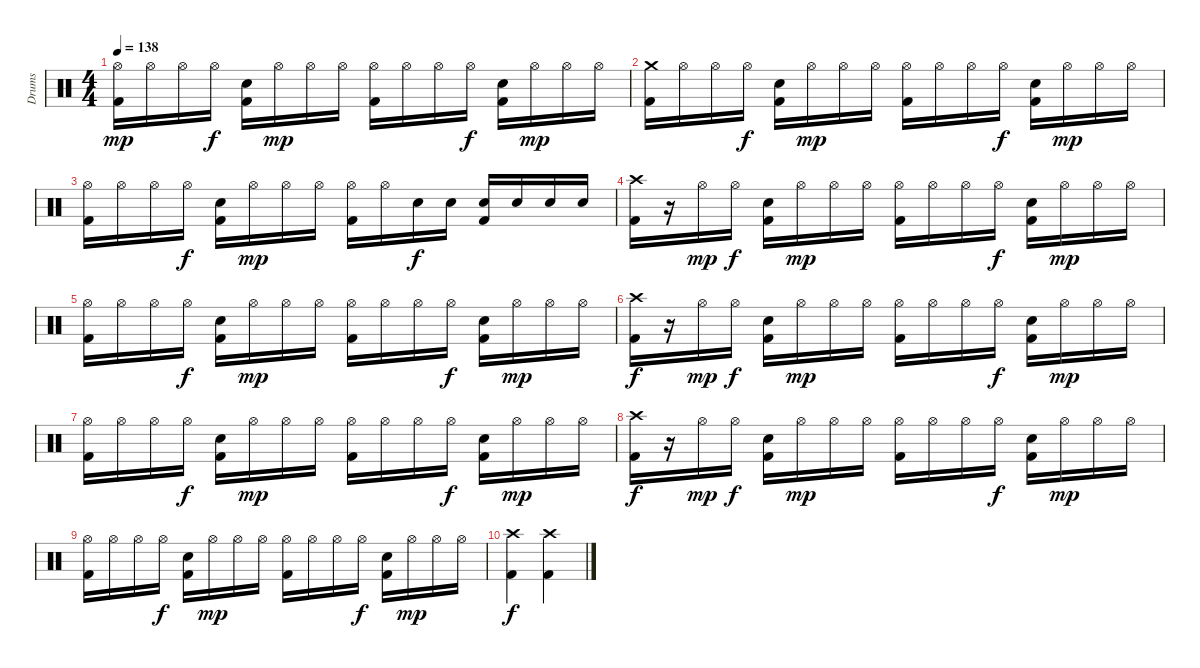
\track ("Drums" "Drums") {instrument percussion}
\staff {score}
\articulation defaults
\ts (4 4)
\tempo 138
\clef neutral
\ks c
("Hi-Hat (open)" "Kick (hit) 2").16{dy mp} "Hi-Hat (open)".16 "Hi-Hat (open)".16 "Hi-Hat (open)".16{dy f} ("Electric Snare (hit)" "Kick (hit) 2").16 "Hi-Hat (open)".16{dy mp} "Hi-Hat (open)".16 "Hi-Hat (open)".16 ("Hi-Hat (open)" "Kick (hit) 2").16 "Hi-Hat (open)".16 "Hi-Hat (open)".16 "Hi-Hat (open)".16{dy f} ("Electric Snare (hit)" "Kick (hit) 2").16 "Hi-Hat (open)".16{dy mp} "Hi-Hat (open)".16 "Hi-Hat (open)".16 |
("Crash medium (hit)" "Kick (hit) 2").16 "Hi-Hat (open)".16 "Hi-Hat (open)".16 "Hi-Hat (open)".16{dy f} ("Electric Snare (hit)" "Kick (hit) 2").16 "Hi-Hat (open)".16{dy mp} "Hi-Hat (open)".16 "Hi-Hat (open)".16 ("Hi-Hat (open)" "Kick (hit) 2").16 "Hi-Hat (open)".16 "Hi-Hat (open)".16 "Hi-Hat (open)".16{dy f} ("Electric Snare (hit)" "Kick (hit) 2").16 "Hi-Hat (open)".16{dy mp} "Hi-Hat (open)".16 "Hi-Hat (open)".16 |
("Hi-Hat (open)" "Kick (hit) 2").16 "Hi-Hat (open)".16 "Hi-Hat (open)".16 "Hi-Hat (open)".16{dy f} ("Electric Snare (hit)" "Kick (hit) 2").16 "Hi-Hat (open)".16{dy mp} "Hi-Hat (open)".16 "Hi-Hat (open)".16 ("Hi-Hat (open)" "Kick (hit) 2").16 "Hi-Hat (open)".16 "Electric Snare (hit)".16{dy f} "Electric Snare (hit)".16 ("Electric Snare (hit)" "Kick (hit) 2").16 "Electric Snare (hit)".16 "Electric Snare (hit)".16 "Electric Snare (hit)".16 |
("Crash high (hit)" "Kick (hit) 2").16 r.16 "Hi-Hat (open)".16{dy mp} "Hi-Hat (open)".16{dy f} ("Electric Snare (hit)" "Kick (hit) 2").16 "Hi-Hat (open)".16{dy mp} "Hi-Hat (open)".16 "Hi-Hat (open)".16 ("Hi-Hat (open)" "Kick (hit) 2").16 "Hi-Hat (open)".16 "Hi-Hat (open)".16 "Hi-Hat (open)".16{dy f} ("Electric Snare (hit)" "Kick (hit) 2").16 "Hi-Hat (open)".16{dy mp} "Hi-Hat (open)".16 "Hi-Hat (open)".16 |
("Hi-Hat (open)" "Kick (hit) 2").16 "Hi-Hat (open)".16 "Hi-Hat (open)".16 "Hi-Hat (open)".16{dy f} ("Electric Snare (hit)" "Kick (hit) 2").16 "Hi-Hat (open)".16{dy mp} "Hi-Hat (open)".16 "Hi-Hat (open)".16 ("Hi-Hat (open)" "Kick (hit) 2").16 "Hi-Hat (open)".16 "Hi-Hat (open)".16 "Hi-Hat (open)".16{dy f} ("Electric Snare (hit)" "Kick (hit) 2").16 "Hi-Hat (open)".16{dy mp} "Hi-Hat (open)".16 "Hi-Hat (open)".16 |
("Crash high (hit)" "Kick (hit) 2").16{dy f} r.16 "Hi-Hat (open)".16{dy mp} "Hi-Hat (open)".16{dy f} ("Electric Snare (hit)" "Kick (hit) 2").16 "Hi-Hat (open)".16{dy mp} "Hi-Hat (open)".16 "Hi-Hat (open)".16 ("Hi-Hat (open)" "Kick (hit) 2").16 "Hi-Hat (open)".16 "Hi-Hat (open)".16 "Hi-Hat (open)".16{dy f} ("Electric Snare (hit)" "Kick (hit) 2").16 "Hi-Hat (open)".16{dy mp} "Hi-Hat (open)".16 "Hi-Hat (open)".16 |
("Hi-Hat (open)" "Kick (hit) 2").16 "Hi-Hat (open)".16 "Hi-Hat (open)".16 "Hi-Hat (open)".16{dy f} ("Electric Snare (hit)" "Kick (hit) 2").16 "Hi-Hat (open)".16{dy mp} "Hi-Hat (open)".16 "Hi-Hat (open)".16 ("Hi-Hat (open)" "Kick (hit) 2").16 "Hi-Hat (open)".16 "Hi-Hat (open)".16 "Hi-Hat (open)".16{dy f} ("Electric Snare (hit)" "Kick (hit) 2").16 "Hi-Hat (open)".16{dy mp} "Hi-Hat (open)".16 "Hi-Hat (open)".16 |
("Crash high (hit)" "Kick (hit) 2").16{dy f} r.16 "Hi-Hat (open)".16{dy mp} "Hi-Hat (open)".16{dy f} ("Electric Snare (hit)" "Kick (hit) 2").16 "Hi-Hat (open)".16{dy mp} "Hi-Hat (open)".16 "Hi-Hat (open)".16 ("Hi-Hat (open)" "Kick (hit) 2").16 "Hi-Hat (open)".16 "Hi-Hat (open)".16 "Hi-Hat (open)".16{dy f} ("Electric Snare (hit)" "Kick (hit) 2").16 "Hi-Hat (open)".16{dy mp} "Hi-Hat (open)".16 "Hi-Hat (open)".16 |
("Hi-Hat (open)" "Kick (hit) 2").16 "Hi-Hat (open)".16 "Hi-Hat (open)".16 "Hi-Hat (open)".16{dy f} ("Electric Snare (hit)" "Kick (hit) 2").16 "Hi-Hat (open)".16{dy mp} "Hi-Hat (open)".16 "Hi-Hat (open)".16 ("Hi-Hat (open)" "Kick (hit) 2").16 "Hi-Hat (open)".16 "Hi-Hat (open)".16 "Hi-Hat (open)".16{dy f} ("Electric Snare (hit)" "Kick (hit) 2").16 "Hi-Hat (open)".16{dy mp} "Hi-Hat (open)".16 "Hi-Hat (open)".16 |
("Crash high (hit)" "Kick (hit) 2").4{dy f} ("Crash high (hit)" "Kick (hit) 2").4
